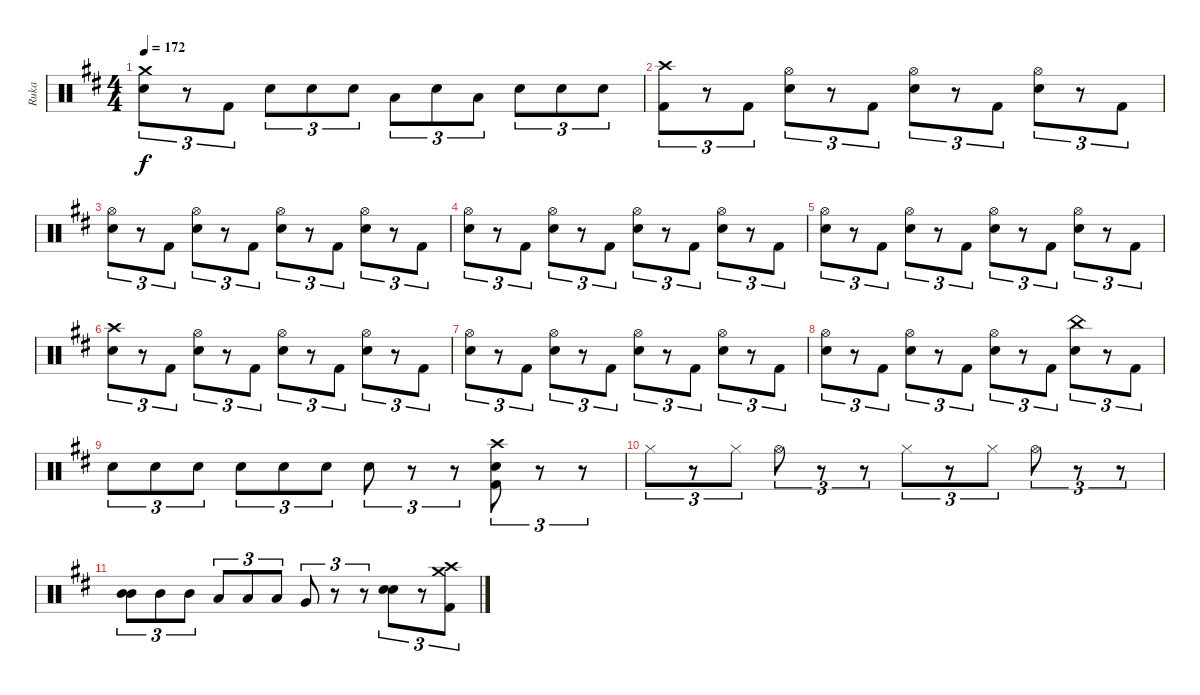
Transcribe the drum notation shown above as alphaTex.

\track ("Ruka" "Ruka") {instrument percussion}
\staff {score}
\articulation defaults
\ts (4 4)
\tempo 172
\clef neutral
\ks bminor
("Electric Snare (hit)" "Crash medium (hit)").8{tu (3 2) dy f} r.8{tu (3 2)} "Kick (hit) 2".8{tu (3 2)} "Electric Snare (hit)".8{tu (3 2)} "Electric Snare (hit)".8{tu (3 2)} "Electric Snare (hit)".8{tu (3 2)} "Low Tom (hit)".8{tu (3 2)} "Electric Snare (hit)".8{tu (3 2)} "Low Tom (hit)".8{tu (3 2)} "Electric Snare (hit)".8{tu (3 2)} "Electric Snare (hit)".8{tu (3 2)} "Electric Snare (hit)".8{tu (3 2)} |
("Crash high (hit)" "Kick (hit) 2").8{tu (3 2)} r.8{tu (3 2)} "Kick (hit) 2".8{tu (3 2)} ("Hi-Hat (open)" "Electric Snare (hit)").8{tu (3 2)} r.8{tu (3 2)} "Kick (hit) 2".8{tu (3 2)} ("Hi-Hat (open)" "Electric Snare (hit)").8{tu (3 2)} r.8{tu (3 2)} "Kick (hit) 2".8{tu (3 2)} ("Hi-Hat (open)" "Electric Snare (hit)").8{tu (3 2)} r.8{tu (3 2)} "Kick (hit) 2".8{tu (3 2)} |
("Hi-Hat (open)" "Electric Snare (hit)").8{tu (3 2)} r.8{tu (3 2)} "Kick (hit) 2".8{tu (3 2)} ("Hi-Hat (open)" "Electric Snare (hit)").8{tu (3 2)} r.8{tu (3 2)} "Kick (hit) 2".8{tu (3 2)} ("Hi-Hat (open)" "Electric Snare (hit)").8{tu (3 2)} r.8{tu (3 2)} "Kick (hit) 2".8{tu (3 2)} ("Hi-Hat (open)" "Electric Snare (hit)").8{tu (3 2)} r.8{tu (3 2)} "Kick (hit) 2".8{tu (3 2)} |
("Hi-Hat (open)" "Electric Snare (hit)").8{tu (3 2)} r.8{tu (3 2)} "Kick (hit) 2".8{tu (3 2)} ("Hi-Hat (open)" "Electric Snare (hit)").8{tu (3 2)} r.8{tu (3 2)} "Kick (hit) 2".8{tu (3 2)} ("Hi-Hat (open)" "Electric Snare (hit)").8{tu (3 2)} r.8{tu (3 2)} "Kick (hit) 2".8{tu (3 2)} ("Hi-Hat (open)" "Electric Snare (hit)").8{tu (3 2)} r.8{tu (3 2)} "Kick (hit) 2".8{tu (3 2)} |
("Hi-Hat (open)" "Electric Snare (hit)").8{tu (3 2)} r.8{tu (3 2)} "Kick (hit) 2".8{tu (3 2)} ("Hi-Hat (open)" "Electric Snare (hit)").8{tu (3 2)} r.8{tu (3 2)} "Kick (hit) 2".8{tu (3 2)} ("Hi-Hat (open)" "Electric Snare (hit)").8{tu (3 2)} r.8{tu (3 2)} "Kick (hit) 2".8{tu (3 2)} ("Hi-Hat (open)" "Electric Snare (hit)").8{tu (3 2)} r.8{tu (3 2)} "Kick (hit) 2".8{tu (3 2)} |
("Crash high (hit)" "Electric Snare (hit)").8{tu (3 2)} r.8{tu (3 2)} "Kick (hit) 2".8{tu (3 2)} ("Hi-Hat (open)" "Electric Snare (hit)").8{tu (3 2)} r.8{tu (3 2)} "Kick (hit) 2".8{tu (3 2)} ("Hi-Hat (open)" "Electric Snare (hit)").8{tu (3 2)} r.8{tu (3 2)} "Kick (hit) 2".8{tu (3 2)} ("Hi-Hat (open)" "Electric Snare (hit)").8{tu (3 2)} r.8{tu (3 2)} "Kick (hit) 2".8{tu (3 2)} |
("Hi-Hat (open)" "Electric Snare (hit)").8{tu (3 2)} r.8{tu (3 2)} "Kick (hit) 2".8{tu (3 2)} ("Hi-Hat (open)" "Electric Snare (hit)").8{tu (3 2)} r.8{tu (3 2)} "Kick (hit) 2".8{tu (3 2)} ("Hi-Hat (open)" "Electric Snare (hit)").8{tu (3 2)} r.8{tu (3 2)} "Kick (hit) 2".8{tu (3 2)} ("Hi-Hat (open)" "Electric Snare (hit)").8{tu (3 2)} r.8{tu (3 2)} "Kick (hit) 2".8{tu (3 2)} |
("Hi-Hat (open)" "Electric Snare (hit)").8{tu (3 2)} r.8{tu (3 2)} "Kick (hit) 2".8{tu (3 2)} ("Hi-Hat (open)" "Electric Snare (hit)").8{tu (3 2)} r.8{tu (3 2)} "Kick (hit) 2".8{tu (3 2)} ("Hi-Hat (open)" "Electric Snare (hit)").8{tu (3 2)} r.8{tu (3 2)} "Kick (hit) 2".8{tu (3 2)} ("China (hit)" "Electric Snare (hit)").8{tu (3 2)} r.8{tu (3 2)} "Kick (hit) 2".8{tu (3 2)} |
"Electric Snare (hit)".8{tu (3 2)} "Electric Snare (hit)".8{tu (3 2)} "Electric Snare (hit)".8{tu (3 2)} "Electric Snare (hit)".8{tu (3 2)} "Electric Snare (hit)".8{tu (3 2)} "Electric Snare (hit)".8{tu (3 2)} "Electric Snare (hit)".8{tu (3 2)} r.8{tu (3 2)} r.8{tu (3 2)} ("Kick (hit) 2" "Electric Snare (hit)" "Crash high (hit)").8{tu (3 2)} r.8{tu (3 2)} r.8{tu (3 2)} |
"Hi-Hat (closed)".8{tu (3 2)} r.8{tu (3 2)} "Hi-Hat (closed)".8{tu (3 2)} "Hi-Hat (open)".8{tu (3 2)} r.8{tu (3 2)} r.8{tu (3 2)} "Hi-Hat (closed)".8{tu (3 2)} r.8{tu (3 2)} "Hi-Hat (closed)".8{tu (3 2)} "Hi-Hat (open)".8{tu (3 2)} r.8{tu (3 2)} r.8{tu (3 2)} |
("Mid Tom (hit)" "Mid Tom (hit)").8{tu (3 2) bd 120} "Mid Tom (hit)".8{tu (3 2)} "Mid Tom (hit)".8{tu (3 2)} "Low Tom (hit)".8{tu (3 2)} "Low Tom (hit)".8{tu (3 2)} "Low Tom (hit)".8{tu (3 2)} "Very Low Tom (hit)".8{tu (3 2)} r.8{tu (3 2)} r.8{tu (3 2)} ("Electric Snare (hit)" "Electric Snare (hit)").8{tu (3 2) bd 120} r.8{tu (3 2)} ("Kick (hit) 2" "Crash high (hit)" "Crash medium (hit)").8{tu (3 2)}
